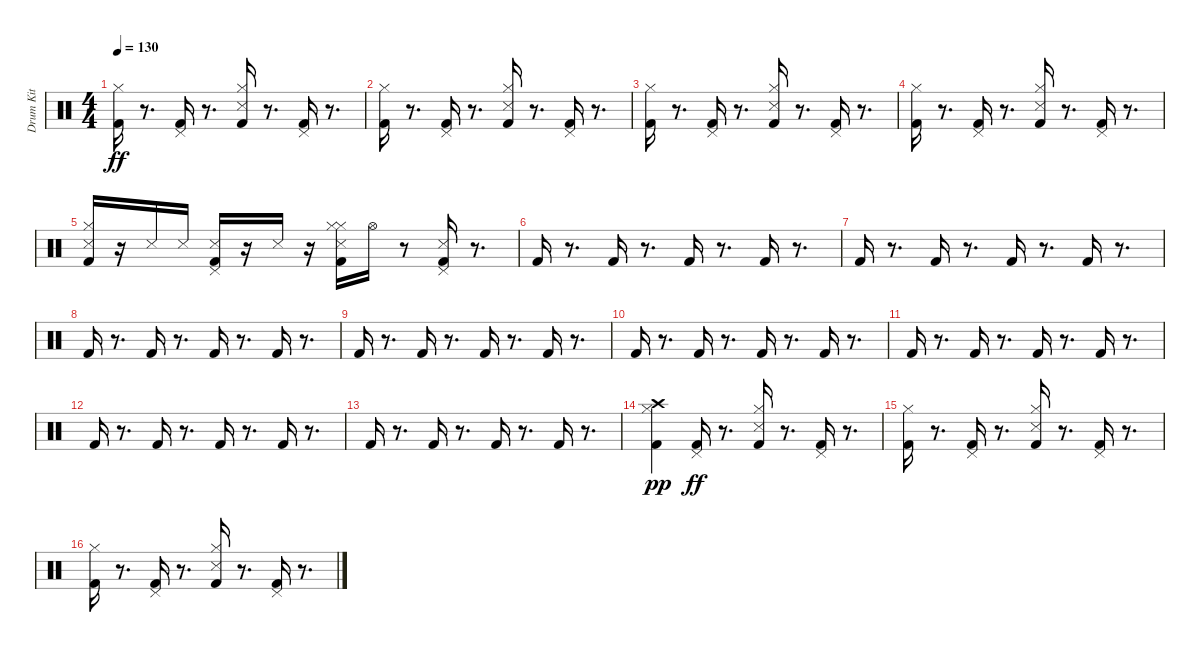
\track ("Drum Kit" "Drum Kit") {instrument percussion}
\staff {score}
\articulation defaults
\ts (4 4)
\tempo 130
\clef neutral
\ks c
("Kick (hit) 2" "Hi-Hat (closed)").16{dy ff} r.8{d} ("Kick (hit) 2" "Pedal Hi-Hat (hit)").16 r.8{d} ("Kick (hit) 2" "Snare (side stick) 3" "Hi-Hat (closed)").16 r.8{d} ("Kick (hit) 2" "Pedal Hi-Hat (hit)").16 r.8{d} |
("Kick (hit) 2" "Hi-Hat (closed)").16 r.8{d} ("Kick (hit) 2" "Pedal Hi-Hat (hit)").16 r.8{d} ("Kick (hit) 2" "Snare (side stick) 3" "Hi-Hat (closed)").16 r.8{d} ("Kick (hit) 2" "Pedal Hi-Hat (hit)").16 r.8{d} |
("Kick (hit) 2" "Hi-Hat (closed)").16 r.8{d} ("Kick (hit) 2" "Pedal Hi-Hat (hit)").16 r.8{d} ("Kick (hit) 2" "Snare (side stick) 3" "Hi-Hat (closed)").16 r.8{d} ("Kick (hit) 2" "Pedal Hi-Hat (hit)").16 r.8{d} |
("Kick (hit) 2" "Hi-Hat (closed)").16 r.8{d} ("Kick (hit) 2" "Pedal Hi-Hat (hit)").16 r.8{d} ("Kick (hit) 2" "Snare (side stick) 3" "Hi-Hat (closed)").16 r.8{d} ("Kick (hit) 2" "Pedal Hi-Hat (hit)").16 r.8{d} |
("Kick (hit) 2" "Snare (side stick) 3" "Hi-Hat (closed)").16 r.16 "Snare (side stick) 3".16 "Snare (side stick) 3".16 ("Kick (hit) 2" "Snare (side stick) 3" "Pedal Hi-Hat (hit)").16 r.16 "Snare (side stick) 3".16 r.16 ("Kick (hit) 2" "Snare (side stick) 3" "Hi-Hat (closed)" "Hi-Hat (closed)").16 "Hi-Hat (open)".16 r.8 ("Kick (hit) 2" "Snare (side stick) 3" "Pedal Hi-Hat (hit)").16 r.8{d} |
"Kick (hit) 2".16 r.8{d} "Kick (hit) 2".16 r.8{d} "Kick (hit) 2".16 r.8{d} "Kick (hit) 2".16 r.8{d} |
"Kick (hit) 2".16 r.8{d} "Kick (hit) 2".16 r.8{d} "Kick (hit) 2".16 r.8{d} "Kick (hit) 2".16 r.8{d} |
"Kick (hit) 2".16 r.8{d} "Kick (hit) 2".16 r.8{d} "Kick (hit) 2".16 r.8{d} "Kick (hit) 2".16 r.8{d} |
"Kick (hit) 2".16 r.8{d} "Kick (hit) 2".16 r.8{d} "Kick (hit) 2".16 r.8{d} "Kick (hit) 2".16 r.8{d} |
"Kick (hit) 2".16 r.8{d} "Kick (hit) 2".16 r.8{d} "Kick (hit) 2".16 r.8{d} "Kick (hit) 2".16 r.8{d} |
"Kick (hit) 2".16 r.8{d} "Kick (hit) 2".16 r.8{d} "Kick (hit) 2".16 r.8{d} "Kick (hit) 2".16 r.8{d} |
"Kick (hit) 2".16 r.8{d} "Kick (hit) 2".16 r.8{d} "Kick (hit) 2".16 r.8{d} "Kick (hit) 2".16 r.8{d} |
"Kick (hit) 2".16 r.8{d} "Kick (hit) 2".16 r.8{d} "Kick (hit) 2".16 r.8{d} "Kick (hit) 2".16 r.8{d} |
("Kick (hit) 2" "Hi-Hat (closed)" "Crash high (hit)").4{dy pp} ("Kick (hit) 2" "Pedal Hi-Hat (hit)").16{dy ff} r.8{d} ("Kick (hit) 2" "Snare (side stick) 3" "Hi-Hat (closed)").16 r.8{d} ("Kick (hit) 2" "Pedal Hi-Hat (hit)").16 r.8{d} |
("Kick (hit) 2" "Hi-Hat (closed)").16 r.8{d} ("Kick (hit) 2" "Pedal Hi-Hat (hit)").16 r.8{d} ("Kick (hit) 2" "Snare (side stick) 3" "Hi-Hat (closed)").16 r.8{d} ("Kick (hit) 2" "Pedal Hi-Hat (hit)").16 r.8{d} |
("Kick (hit) 2" "Hi-Hat (closed)").16 r.8{d} ("Kick (hit) 2" "Pedal Hi-Hat (hit)").16 r.8{d} ("Kick (hit) 2" "Snare (side stick) 3" "Hi-Hat (closed)").16 r.8{d} ("Kick (hit) 2" "Pedal Hi-Hat (hit)").16 r.8{d}
